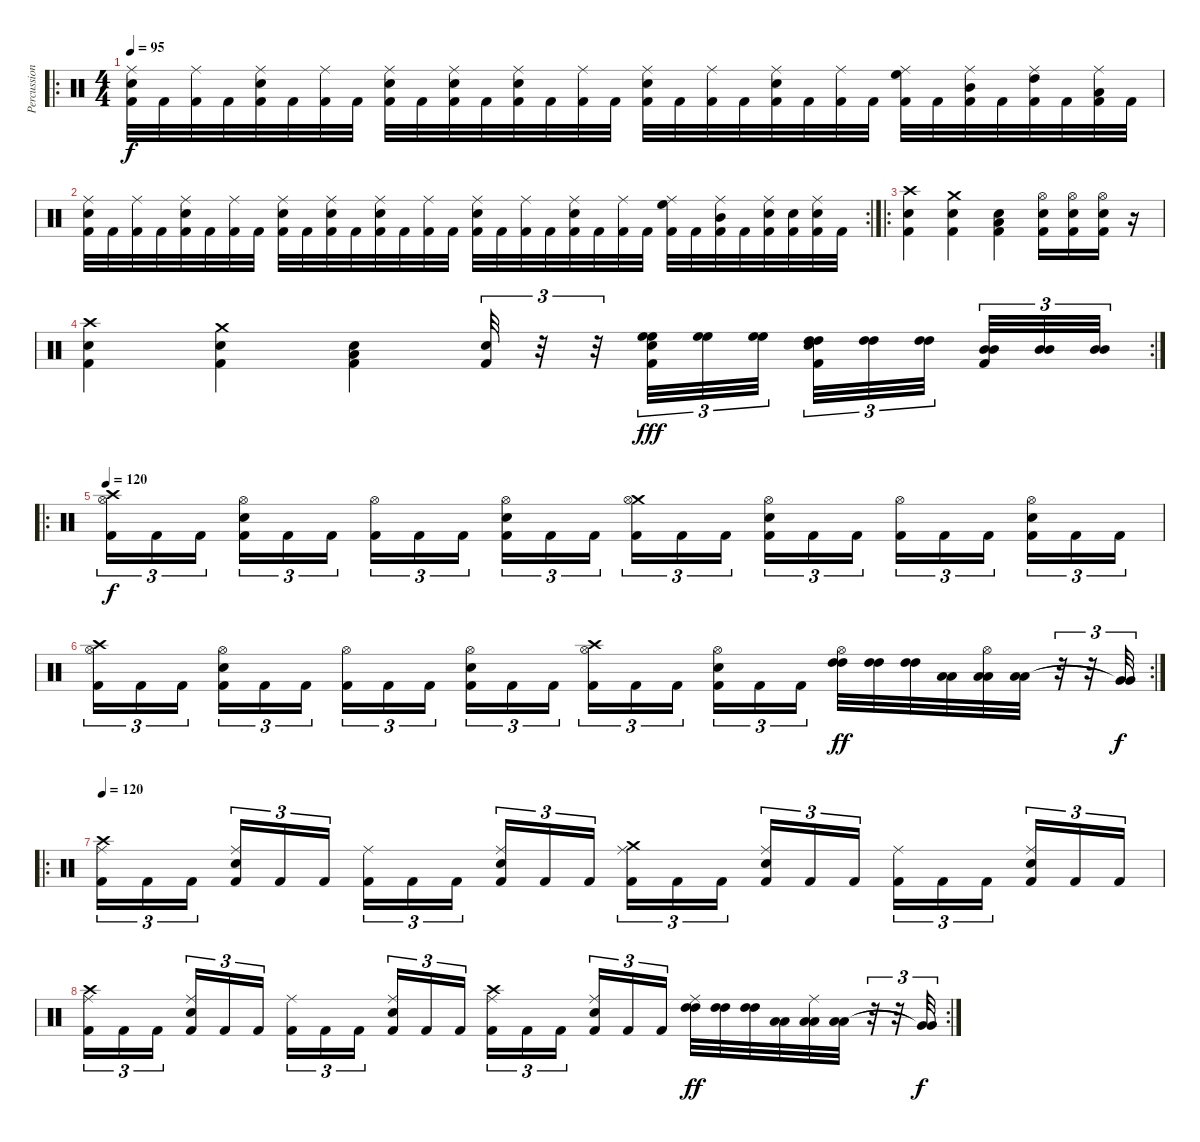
\track ("Percussion" "Percussion") {instrument percussion}
\staff {score}
\articulation defaults
\ro
\ts (4 4)
\tempo 95
\clef neutral
\ks c
("Electric Snare (hit)" "Ride (middle)" "Kick (hit) 2").32{dy f} "Kick (hit) 2".32 ("Ride (middle)" "Kick (hit) 2").32 "Kick (hit) 2".32 ("Electric Snare (hit)" "Ride (middle)" "Kick (hit) 2").32 "Kick (hit) 2".32 ("Ride (middle)" "Kick (hit) 2").32 "Kick (hit) 2".32 ("Electric Snare (hit)" "Ride (middle)" "Kick (hit) 2").32 "Kick (hit) 2".32 ("Electric Snare (hit)" "Ride (middle)" "Kick (hit) 2").32 "Kick (hit) 2".32 ("Electric Snare (hit)" "Ride (middle)" "Kick (hit) 2").32 "Kick (hit) 2".32 ("Ride (middle)" "Kick (hit) 2").32 "Kick (hit) 2".32 ("Electric Snare (hit)" "Ride (middle)" "Kick (hit) 2").32 "Kick (hit) 2".32 ("Ride (middle)" "Kick (hit) 2").32 "Kick (hit) 2".32 ("Electric Snare (hit)" "Ride (middle)" "Kick (hit) 2").32 "Kick (hit) 2".32 ("Ride (middle)" "Kick (hit) 2").32 "Kick (hit) 2".32 ("High Floor Tom (hit)" "Ride (middle)" "Kick (hit) 2").32 "Kick (hit) 2".32 ("Mid Tom (hit)" "Ride (middle)" "Kick (hit) 2").32 "Kick (hit) 2".32 ("High Tom (hit)" "Ride (middle)" "Kick (hit) 2").32 "Kick (hit) 2".32 ("Low Tom (hit)" "Ride (middle)" "Kick (hit) 2").32 "Kick (hit) 2".32 |
\rc 2
("Electric Snare (hit)" "Ride (middle)" "Kick (hit) 2").32 "Kick (hit) 2".32 ("Ride (middle)" "Kick (hit) 2").32 "Kick (hit) 2".32 ("Electric Snare (hit)" "Ride (middle)" "Kick (hit) 2").32 "Kick (hit) 2".32 ("Ride (middle)" "Kick (hit) 2").32 "Kick (hit) 2".32 ("Electric Snare (hit)" "Ride (middle)" "Kick (hit) 2").32 "Kick (hit) 2".32 ("Electric Snare (hit)" "Ride (middle)" "Kick (hit) 2").32 "Kick (hit) 2".32 ("Electric Snare (hit)" "Ride (middle)" "Kick (hit) 2").32 "Kick (hit) 2".32 ("Ride (middle)" "Kick (hit) 2").32 "Kick (hit) 2".32 ("Electric Snare (hit)" "Ride (middle)" "Kick (hit) 2").32 "Kick (hit) 2".32 ("Ride (middle)" "Kick (hit) 2").32 "Kick (hit) 2".32 ("Electric Snare (hit)" "Ride (middle)" "Kick (hit) 2").32 "Kick (hit) 2".32 ("Ride (middle)" "Kick (hit) 2").32 "Kick (hit) 2".32 ("High Floor Tom (hit)" "Ride (middle)" "Kick (hit) 2").32 "Kick (hit) 2".32 ("Mid Tom (hit)" "Ride (middle)" "Kick (hit) 2").32 "Kick (hit) 2".32 ("Snare (hit) 2" "Ride (middle)" "Kick (hit) 2").32 ("Snare (hit) 2" "Kick (hit) 2").32 ("Snare (hit) 2" "Ride (middle)" "Kick (hit) 2").32 "Kick (hit) 2".32 |
\ro
("Crash high (hit)" "Electric Snare (hit)" "Kick (hit) 2").4 ("Crash medium (hit)" "Electric Snare (hit)" "Kick (hit) 2").4 ("Low Tom (hit)" "Electric Snare (hit)" "Kick (hit) 2").4 ("Hi-Hat (open)" "Electric Snare (hit)" "Kick (hit) 2").16 ("Hi-Hat (open)" "Electric Snare (hit)" "Kick (hit) 2").16 ("Hi-Hat (open)" "Electric Snare (hit)" "Kick (hit) 2").16 r.16 |
\rc 2
("Crash high (hit)" "Electric Snare (hit)" "Kick (hit) 2").4 ("Crash medium (hit)" "Electric Snare (hit)" "Kick (hit) 2").4 ("Low Tom (hit)" "Electric Snare (hit)" "Kick (hit) 2").4 ("Electric Snare (hit)" "Kick (hit) 2").32{tu (3 2)} r.32{tu (3 2)} r.32{tu (3 2)} ("High Floor Tom (hit)" "Electric Snare (hit)" "High Floor Tom (hit)" "Kick (hit) 2").32{tu (3 2) dy fff} ("High Floor Tom (hit)" "High Floor Tom (hit)").32{tu (3 2)} ("High Floor Tom (hit)" "High Floor Tom (hit)").32{tu (3 2)} ("High Tom (hit)" "Electric Snare (hit)" "High Tom (hit)" "Kick (hit) 2").32{tu (3 2)} ("High Tom (hit)" "High Tom (hit)").32{tu (3 2)} ("High Tom (hit)" "High Tom (hit)").32{tu (3 2)} ("Mid Tom (hit)" "Mid Tom (hit)" "Kick (hit) 2").32{tu (3 2)} ("Mid Tom (hit)" "Mid Tom (hit)").32{tu (3 2)} ("Mid Tom (hit)" "Mid Tom (hit)").32{tu (3 2)} |
\ro
\tempo 120
("Crash high (hit)" "Hi-Hat (open)" "Kick (hit) 2").16{tu (3 2) dy f} "Kick (hit) 2".16{tu (3 2)} "Kick (hit) 2".16{tu (3 2)} ("Hi-Hat (open)" "Electric Snare (hit)" "Kick (hit) 2").16{tu (3 2)} "Kick (hit) 2".16{tu (3 2)} "Kick (hit) 2".16{tu (3 2)} ("Hi-Hat (open)" "Kick (hit) 2").16{tu (3 2)} "Kick (hit) 2".16{tu (3 2)} "Kick (hit) 2".16{tu (3 2)} ("Hi-Hat (open)" "Electric Snare (hit)" "Kick (hit) 2").16{tu (3 2)} "Kick (hit) 2".16{tu (3 2)} "Kick (hit) 2".16{tu (3 2)} ("Crash medium (hit)" "Hi-Hat (open)" "Kick (hit) 2").16{tu (3 2)} "Kick (hit) 2".16{tu (3 2)} "Kick (hit) 2".16{tu (3 2)} ("Hi-Hat (open)" "Electric Snare (hit)" "Kick (hit) 2").16{tu (3 2)} "Kick (hit) 2".16{tu (3 2)} "Kick (hit) 2".16{tu (3 2)} ("Hi-Hat (open)" "Kick (hit) 2").16{tu (3 2)} "Kick (hit) 2".16{tu (3 2)} "Kick (hit) 2".16{tu (3 2)} ("Hi-Hat (open)" "Electric Snare (hit)" "Kick (hit) 2").16{tu (3 2)} "Kick (hit) 2".16{tu (3 2)} "Kick (hit) 2".16{tu (3 2)} |
\rc 2
("Crash high (hit)" "Hi-Hat (open)" "Kick (hit) 2").16{tu (3 2)} "Kick (hit) 2".16{tu (3 2)} "Kick (hit) 2".16{tu (3 2)} ("Hi-Hat (open)" "Electric Snare (hit)" "Kick (hit) 2").16{tu (3 2)} "Kick (hit) 2".16{tu (3 2)} "Kick (hit) 2".16{tu (3 2)} ("Hi-Hat (open)" "Kick (hit) 2").16{tu (3 2)} "Kick (hit) 2".16{tu (3 2)} "Kick (hit) 2".16{tu (3 2)} ("Hi-Hat (open)" "Electric Snare (hit)" "Kick (hit) 2").16{tu (3 2)} "Kick (hit) 2".16{tu (3 2)} "Kick (hit) 2".16{tu (3 2)} ("Crash high (hit)" "Hi-Hat (open)" "Kick (hit) 2").16{tu (3 2)} "Kick (hit) 2".16{tu (3 2)} "Kick (hit) 2".16{tu (3 2)} ("Hi-Hat (open)" "Electric Snare (hit)" "Kick (hit) 2").16{tu (3 2)} "Kick (hit) 2".16{tu (3 2)} "Kick (hit) 2".16{tu (3 2)} ("Hi-Hat (open)" "High Tom (hit)" "High Tom (hit)").32{dy ff} ("High Tom (hit)" "High Tom (hit)").32 ("High Tom (hit)" "High Tom (hit)").32 ("Low Tom (hit)" "Low Tom (hit)").32 ("Hi-Hat (open)" "Low Tom (hit)" "Low Tom (hit)").32 ("Low Tom (hit)" "Low Tom (hit)").32 r.32{tu (3 2)} r.32{tu (3 2)} ("Very Low Tom (hit)"{t} "Very Low Tom (hit)"{t}).32{tu (3 2) dy f} |
\ro
\tempo 120
("Crash high (hit)" "Ride (middle)" "Kick (hit) 2").16{tu (3 2)} "Kick (hit) 2".16{tu (3 2)} "Kick (hit) 2".16{tu (3 2)} ("Ride (middle)" "Electric Snare (hit)" "Kick (hit) 2").16{tu (3 2)} "Kick (hit) 2".16{tu (3 2)} "Kick (hit) 2".16{tu (3 2)} ("Ride (middle)" "Kick (hit) 2").16{tu (3 2)} "Kick (hit) 2".16{tu (3 2)} "Kick (hit) 2".16{tu (3 2)} ("Ride (middle)" "Electric Snare (hit)" "Kick (hit) 2").16{tu (3 2)} "Kick (hit) 2".16{tu (3 2)} "Kick (hit) 2".16{tu (3 2)} ("Crash medium (hit)" "Ride (middle)" "Kick (hit) 2").16{tu (3 2)} "Kick (hit) 2".16{tu (3 2)} "Kick (hit) 2".16{tu (3 2)} ("Ride (middle)" "Electric Snare (hit)" "Kick (hit) 2").16{tu (3 2)} "Kick (hit) 2".16{tu (3 2)} "Kick (hit) 2".16{tu (3 2)} ("Ride (middle)" "Kick (hit) 2").16{tu (3 2)} "Kick (hit) 2".16{tu (3 2)} "Kick (hit) 2".16{tu (3 2)} ("Ride (middle)" "Electric Snare (hit)" "Kick (hit) 2").16{tu (3 2)} "Kick (hit) 2".16{tu (3 2)} "Kick (hit) 2".16{tu (3 2)} |
\rc 2
("Crash high (hit)" "Ride (middle)" "Kick (hit) 2").16{tu (3 2)} "Kick (hit) 2".16{tu (3 2)} "Kick (hit) 2".16{tu (3 2)} ("Ride (middle)" "Electric Snare (hit)" "Kick (hit) 2").16{tu (3 2)} "Kick (hit) 2".16{tu (3 2)} "Kick (hit) 2".16{tu (3 2)} ("Ride (middle)" "Kick (hit) 2").16{tu (3 2)} "Kick (hit) 2".16{tu (3 2)} "Kick (hit) 2".16{tu (3 2)} ("Ride (middle)" "Electric Snare (hit)" "Kick (hit) 2").16{tu (3 2)} "Kick (hit) 2".16{tu (3 2)} "Kick (hit) 2".16{tu (3 2)} ("Crash high (hit)" "Ride (middle)" "Kick (hit) 2").16{tu (3 2)} "Kick (hit) 2".16{tu (3 2)} "Kick (hit) 2".16{tu (3 2)} ("Ride (middle)" "Electric Snare (hit)" "Kick (hit) 2").16{tu (3 2)} "Kick (hit) 2".16{tu (3 2)} "Kick (hit) 2".16{tu (3 2)} ("Ride (middle)" "High Tom (hit)" "High Tom (hit)").32{dy ff} ("High Tom (hit)" "High Tom (hit)").32 ("High Tom (hit)" "High Tom (hit)").32 ("Low Tom (hit)" "Low Tom (hit)").32 ("Ride (middle)" "Low Tom (hit)" "Low Tom (hit)").32 ("Low Tom (hit)" "Low Tom (hit)").32 r.32{tu (3 2)} r.32{tu (3 2)} ("Very Low Tom (hit)"{t} "Very Low Tom (hit)"{t}).32{tu (3 2) dy f}
